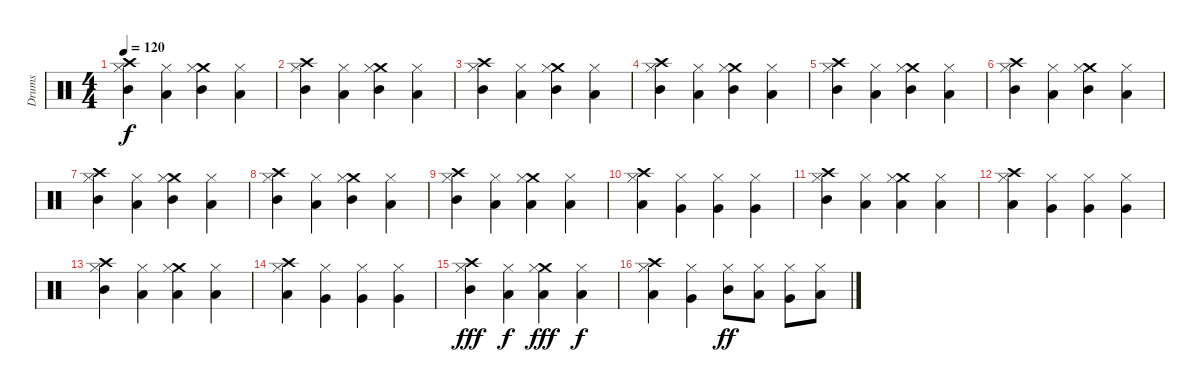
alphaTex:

\track ("Drums" "Drums") {instrument percussion}
\staff {score}
\articulation defaults
\ts (4 4)
\tempo 120
\clef neutral
\ks c
("Crash high (hit)" "Hi-Hat (closed)" "Mid Tom (hit)").4{dy f} ("Hi-Hat (closed)" "Low Tom (hit)").4 ("Crash medium (hit)" "Hi-Hat (closed)" "Mid Tom (hit)").4 ("Hi-Hat (closed)" "Low Tom (hit)").4 |
("Crash high (hit)" "Hi-Hat (closed)" "Mid Tom (hit)").4 ("Hi-Hat (closed)" "Low Tom (hit)").4 ("Crash medium (hit)" "Hi-Hat (closed)" "Mid Tom (hit)").4 ("Hi-Hat (closed)" "Low Tom (hit)").4 |
("Crash high (hit)" "Hi-Hat (closed)" "Mid Tom (hit)").4 ("Hi-Hat (closed)" "Low Tom (hit)").4 ("Crash medium (hit)" "Hi-Hat (closed)" "Mid Tom (hit)").4 ("Hi-Hat (closed)" "Low Tom (hit)").4 |
("Crash high (hit)" "Hi-Hat (closed)" "Mid Tom (hit)").4 ("Hi-Hat (closed)" "Low Tom (hit)").4 ("Crash medium (hit)" "Hi-Hat (closed)" "Mid Tom (hit)").4 ("Hi-Hat (closed)" "Low Tom (hit)").4 |
("Crash high (hit)" "Hi-Hat (closed)" "Mid Tom (hit)").4 ("Hi-Hat (closed)" "Low Tom (hit)").4 ("Crash medium (hit)" "Hi-Hat (closed)" "Mid Tom (hit)").4 ("Hi-Hat (closed)" "Low Tom (hit)").4 |
("Crash high (hit)" "Hi-Hat (closed)" "Mid Tom (hit)").4 ("Hi-Hat (closed)" "Low Tom (hit)").4 ("Crash medium (hit)" "Hi-Hat (closed)" "Mid Tom (hit)").4 ("Hi-Hat (closed)" "Low Tom (hit)").4 |
("Crash high (hit)" "Hi-Hat (closed)" "Mid Tom (hit)").4 ("Hi-Hat (closed)" "Low Tom (hit)").4 ("Crash medium (hit)" "Hi-Hat (closed)" "Mid Tom (hit)").4 ("Hi-Hat (closed)" "Low Tom (hit)").4 |
("Crash high (hit)" "Hi-Hat (closed)" "Mid Tom (hit)").4 ("Hi-Hat (closed)" "Low Tom (hit)").4 ("Crash medium (hit)" "Hi-Hat (closed)" "Mid Tom (hit)").4 ("Hi-Hat (closed)" "Low Tom (hit)").4 |
("Crash high (hit)" "Hi-Hat (closed)" "Mid Tom (hit)").4 ("Hi-Hat (closed)" "Low Tom (hit)").4 ("Crash medium (hit)" "Hi-Hat (closed)" "Low Tom (hit)").4 ("Hi-Hat (closed)" "Low Tom (hit)").4 |
("Crash high (hit)" "Hi-Hat (closed)" "Low Tom (hit)").4 ("Hi-Hat (closed)" "Very Low Tom (hit)").4 ("Hi-Hat (closed)" "Very Low Tom (hit)").4 ("Hi-Hat (closed)" "Very Low Tom (hit)").4 |
("Crash high (hit)" "Hi-Hat (closed)" "Mid Tom (hit)").4 ("Hi-Hat (closed)" "Low Tom (hit)").4 ("Crash medium (hit)" "Hi-Hat (closed)" "Low Tom (hit)").4 ("Hi-Hat (closed)" "Low Tom (hit)").4 |
("Crash high (hit)" "Hi-Hat (closed)" "Low Tom (hit)").4 ("Hi-Hat (closed)" "Very Low Tom (hit)").4 ("Hi-Hat (closed)" "Very Low Tom (hit)").4 ("Hi-Hat (closed)" "Very Low Tom (hit)").4 |
("Crash high (hit)" "Hi-Hat (closed)" "Mid Tom (hit)").4 ("Hi-Hat (closed)" "Low Tom (hit)").4 ("Crash medium (hit)" "Hi-Hat (closed)" "Low Tom (hit)").4 ("Hi-Hat (closed)" "Low Tom (hit)").4 |
("Crash high (hit)" "Hi-Hat (closed)" "Low Tom (hit)").4 ("Hi-Hat (closed)" "Very Low Tom (hit)").4 ("Hi-Hat (closed)" "Very Low Tom (hit)").4 ("Hi-Hat (closed)" "Very Low Tom (hit)").4 |
("Crash high (hit)" "Hi-Hat (closed)" "Mid Tom (hit)").4{dy fff} ("Hi-Hat (closed)" "Low Tom (hit)").4{dy f} ("Crash medium (hit)" "Hi-Hat (closed)" "Low Tom (hit)").4{dy fff} ("Hi-Hat (closed)" "Low Tom (hit)").4{dy f} |
("Crash high (hit)" "Hi-Hat (closed)" "Low Tom (hit)").4 ("Hi-Hat (closed)" "Very Low Tom (hit)").4 ("Hi-Hat (closed)" "Mid Tom (hit)").8{dy ff} ("Hi-Hat (closed)" "Low Tom (hit)").8 ("Hi-Hat (closed)" "Very Low Tom (hit)").8 ("Hi-Hat (closed)" "Low Floor Tom (hit)").8
